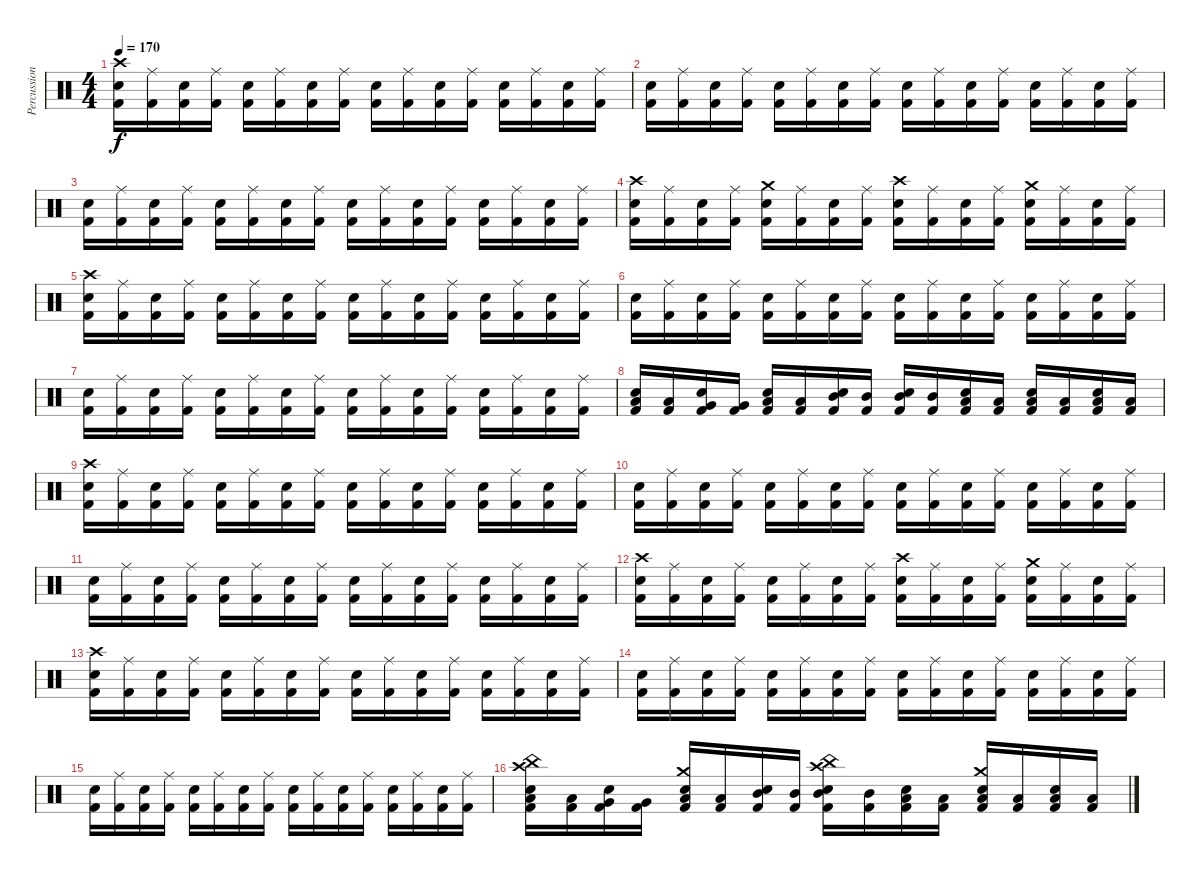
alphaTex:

\track ("Percussions" "Percussion") {instrument percussion}
\staff {score}
\articulation defaults
\ts (4 4)
\tempo 170
\clef neutral
\ks c
("Crash high (hit)" "Snare (hit) 2" "Kick (hit) 2").16{dy f} ("Ride (middle)" "Kick (hit) 2").16 ("Snare (hit) 2" "Kick (hit) 2").16 ("Ride (middle)" "Kick (hit) 2").16 ("Snare (hit) 2" "Kick (hit) 2").16 ("Ride (middle)" "Kick (hit) 2").16 ("Snare (hit) 2" "Kick (hit) 2").16 ("Ride (middle)" "Kick (hit) 2").16 ("Snare (hit) 2" "Kick (hit) 2").16 ("Ride (middle)" "Kick (hit) 2").16 ("Snare (hit) 2" "Kick (hit) 2").16 ("Ride (middle)" "Kick (hit) 2").16 ("Snare (hit) 2" "Kick (hit) 2").16 ("Ride (middle)" "Kick (hit) 2").16 ("Snare (hit) 2" "Kick (hit) 2").16 ("Ride (middle)" "Kick (hit) 2").16 |
("Snare (hit) 2" "Kick (hit) 2").16 ("Ride (middle)" "Kick (hit) 2").16 ("Snare (hit) 2" "Kick (hit) 2").16 ("Ride (middle)" "Kick (hit) 2").16 ("Snare (hit) 2" "Kick (hit) 2").16 ("Ride (middle)" "Kick (hit) 2").16 ("Snare (hit) 2" "Kick (hit) 2").16 ("Ride (middle)" "Kick (hit) 2").16 ("Snare (hit) 2" "Kick (hit) 2").16 ("Ride (middle)" "Kick (hit) 2").16 ("Snare (hit) 2" "Kick (hit) 2").16 ("Ride (middle)" "Kick (hit) 2").16 ("Snare (hit) 2" "Kick (hit) 2").16 ("Ride (middle)" "Kick (hit) 2").16 ("Snare (hit) 2" "Kick (hit) 2").16 ("Ride (middle)" "Kick (hit) 2").16 |
("Snare (hit) 2" "Kick (hit) 2").16 ("Ride (middle)" "Kick (hit) 2").16 ("Snare (hit) 2" "Kick (hit) 2").16 ("Ride (middle)" "Kick (hit) 2").16 ("Snare (hit) 2" "Kick (hit) 2").16 ("Ride (middle)" "Kick (hit) 2").16 ("Snare (hit) 2" "Kick (hit) 2").16 ("Ride (middle)" "Kick (hit) 2").16 ("Snare (hit) 2" "Kick (hit) 2").16 ("Ride (middle)" "Kick (hit) 2").16 ("Snare (hit) 2" "Kick (hit) 2").16 ("Ride (middle)" "Kick (hit) 2").16 ("Snare (hit) 2" "Kick (hit) 2").16 ("Ride (middle)" "Kick (hit) 2").16 ("Snare (hit) 2" "Kick (hit) 2").16 ("Ride (middle)" "Kick (hit) 2").16 |
("Crash high (hit)" "Snare (hit) 2" "Kick (hit) 2").16 ("Ride (middle)" "Kick (hit) 2").16 ("Snare (hit) 2" "Kick (hit) 2").16 ("Ride (middle)" "Kick (hit) 2").16 ("Crash medium (hit)" "Snare (hit) 2" "Kick (hit) 2").16 ("Ride (middle)" "Kick (hit) 2").16 ("Snare (hit) 2" "Kick (hit) 2").16 ("Ride (middle)" "Kick (hit) 2").16 ("Crash high (hit)" "Snare (hit) 2" "Kick (hit) 2").16 ("Ride (middle)" "Kick (hit) 2").16 ("Snare (hit) 2" "Kick (hit) 2").16 ("Ride (middle)" "Kick (hit) 2").16 ("Crash medium (hit)" "Snare (hit) 2" "Kick (hit) 2").16 ("Ride (middle)" "Kick (hit) 2").16 ("Snare (hit) 2" "Kick (hit) 2").16 ("Ride (middle)" "Kick (hit) 2").16 |
("Crash high (hit)" "Snare (hit) 2" "Kick (hit) 2").16 ("Ride (middle)" "Kick (hit) 2").16 ("Snare (hit) 2" "Kick (hit) 2").16 ("Ride (middle)" "Kick (hit) 2").16 ("Snare (hit) 2" "Kick (hit) 2").16 ("Ride (middle)" "Kick (hit) 2").16 ("Snare (hit) 2" "Kick (hit) 2").16 ("Ride (middle)" "Kick (hit) 2").16 ("Snare (hit) 2" "Kick (hit) 2").16 ("Ride (middle)" "Kick (hit) 2").16 ("Snare (hit) 2" "Kick (hit) 2").16 ("Ride (middle)" "Kick (hit) 2").16 ("Snare (hit) 2" "Kick (hit) 2").16 ("Ride (middle)" "Kick (hit) 2").16 ("Snare (hit) 2" "Kick (hit) 2").16 ("Ride (middle)" "Kick (hit) 2").16 |
("Snare (hit) 2" "Kick (hit) 2").16 ("Ride (middle)" "Kick (hit) 2").16 ("Snare (hit) 2" "Kick (hit) 2").16 ("Ride (middle)" "Kick (hit) 2").16 ("Snare (hit) 2" "Kick (hit) 2").16 ("Ride (middle)" "Kick (hit) 2").16 ("Snare (hit) 2" "Kick (hit) 2").16 ("Ride (middle)" "Kick (hit) 2").16 ("Snare (hit) 2" "Kick (hit) 2").16 ("Ride (middle)" "Kick (hit) 2").16 ("Snare (hit) 2" "Kick (hit) 2").16 ("Ride (middle)" "Kick (hit) 2").16 ("Snare (hit) 2" "Kick (hit) 2").16 ("Ride (middle)" "Kick (hit) 2").16 ("Snare (hit) 2" "Kick (hit) 2").16 ("Ride (middle)" "Kick (hit) 2").16 |
("Snare (hit) 2" "Kick (hit) 2").16 ("Ride (middle)" "Kick (hit) 2").16 ("Snare (hit) 2" "Kick (hit) 2").16 ("Ride (middle)" "Kick (hit) 2").16 ("Snare (hit) 2" "Kick (hit) 2").16 ("Ride (middle)" "Kick (hit) 2").16 ("Snare (hit) 2" "Kick (hit) 2").16 ("Ride (middle)" "Kick (hit) 2").16 ("Snare (hit) 2" "Kick (hit) 2").16 ("Ride (middle)" "Kick (hit) 2").16 ("Snare (hit) 2" "Kick (hit) 2").16 ("Ride (middle)" "Kick (hit) 2").16 ("Snare (hit) 2" "Kick (hit) 2").16 ("Ride (middle)" "Kick (hit) 2").16 ("Snare (hit) 2" "Kick (hit) 2").16 ("Ride (middle)" "Kick (hit) 2").16 |
("Low Floor Tom (hit)" "Snare (hit) 2" "Kick (hit) 2").16 ("Low Floor Tom (hit)" "Kick (hit) 2").16 ("Very Low Tom (hit)" "Snare (hit) 2" "Kick (hit) 2").16 ("Very Low Tom (hit)" "Kick (hit) 2").16 ("Low Tom (hit)" "Snare (hit) 2" "Kick (hit) 2").16 ("Low Tom (hit)" "Kick (hit) 2").16 ("Mid Tom (hit)" "Snare (hit) 2" "Kick (hit) 2").16 ("Mid Tom (hit)" "Kick (hit) 2").16 ("Mid Tom (hit)" "Snare (hit) 2" "Kick (hit) 2").16 ("Mid Tom (hit)" "Kick (hit) 2").16 ("Low Tom (hit)" "Snare (hit) 2" "Kick (hit) 2").16 ("Low Tom (hit)" "Kick (hit) 2").16 ("Low Floor Tom (hit)" "Snare (hit) 2" "Kick (hit) 2").16 ("Low Floor Tom (hit)" "Kick (hit) 2").16 ("Low Floor Tom (hit)" "Snare (hit) 2" "Kick (hit) 2").16 ("Low Floor Tom (hit)" "Kick (hit) 2").16 |
("Crash high (hit)" "Snare (hit) 2" "Kick (hit) 2").16 ("Ride (middle)" "Kick (hit) 2").16 ("Snare (hit) 2" "Kick (hit) 2").16 ("Ride (middle)" "Kick (hit) 2").16 ("Snare (hit) 2" "Kick (hit) 2").16 ("Ride (middle)" "Kick (hit) 2").16 ("Snare (hit) 2" "Kick (hit) 2").16 ("Ride (middle)" "Kick (hit) 2").16 ("Snare (hit) 2" "Kick (hit) 2").16 ("Ride (middle)" "Kick (hit) 2").16 ("Snare (hit) 2" "Kick (hit) 2").16 ("Ride (middle)" "Kick (hit) 2").16 ("Snare (hit) 2" "Kick (hit) 2").16 ("Ride (middle)" "Kick (hit) 2").16 ("Snare (hit) 2" "Kick (hit) 2").16 ("Ride (middle)" "Kick (hit) 2").16 |
("Snare (hit) 2" "Kick (hit) 2").16 ("Ride (middle)" "Kick (hit) 2").16 ("Snare (hit) 2" "Kick (hit) 2").16 ("Ride (middle)" "Kick (hit) 2").16 ("Snare (hit) 2" "Kick (hit) 2").16 ("Ride (middle)" "Kick (hit) 2").16 ("Snare (hit) 2" "Kick (hit) 2").16 ("Ride (middle)" "Kick (hit) 2").16 ("Snare (hit) 2" "Kick (hit) 2").16 ("Ride (middle)" "Kick (hit) 2").16 ("Snare (hit) 2" "Kick (hit) 2").16 ("Ride (middle)" "Kick (hit) 2").16 ("Snare (hit) 2" "Kick (hit) 2").16 ("Ride (middle)" "Kick (hit) 2").16 ("Snare (hit) 2" "Kick (hit) 2").16 ("Ride (middle)" "Kick (hit) 2").16 |
("Snare (hit) 2" "Kick (hit) 2").16 ("Ride (middle)" "Kick (hit) 2").16 ("Snare (hit) 2" "Kick (hit) 2").16 ("Ride (middle)" "Kick (hit) 2").16 ("Snare (hit) 2" "Kick (hit) 2").16 ("Ride (middle)" "Kick (hit) 2").16 ("Snare (hit) 2" "Kick (hit) 2").16 ("Ride (middle)" "Kick (hit) 2").16 ("Snare (hit) 2" "Kick (hit) 2").16 ("Ride (middle)" "Kick (hit) 2").16 ("Snare (hit) 2" "Kick (hit) 2").16 ("Ride (middle)" "Kick (hit) 2").16 ("Snare (hit) 2" "Kick (hit) 2").16 ("Ride (middle)" "Kick (hit) 2").16 ("Snare (hit) 2" "Kick (hit) 2").16 ("Ride (middle)" "Kick (hit) 2").16 |
("Crash high (hit)" "Snare (hit) 2" "Kick (hit) 2").16 ("Ride (middle)" "Kick (hit) 2").16 ("Snare (hit) 2" "Kick (hit) 2").16 ("Ride (middle)" "Kick (hit) 2").16 ("Snare (hit) 2" "Kick (hit) 2").16 ("Ride (middle)" "Kick (hit) 2").16 ("Snare (hit) 2" "Kick (hit) 2").16 ("Ride (middle)" "Kick (hit) 2").16 ("Crash high (hit)" "Snare (hit) 2" "Kick (hit) 2").16 ("Ride (middle)" "Kick (hit) 2").16 ("Snare (hit) 2" "Kick (hit) 2").16 ("Ride (middle)" "Kick (hit) 2").16 ("Crash medium (hit)" "Snare (hit) 2" "Kick (hit) 2").16 ("Ride (middle)" "Kick (hit) 2").16 ("Snare (hit) 2" "Kick (hit) 2").16 ("Ride (middle)" "Kick (hit) 2").16 |
("Crash high (hit)" "Snare (hit) 2" "Kick (hit) 2").16 ("Ride (middle)" "Kick (hit) 2").16 ("Snare (hit) 2" "Kick (hit) 2").16 ("Ride (middle)" "Kick (hit) 2").16 ("Snare (hit) 2" "Kick (hit) 2").16 ("Ride (middle)" "Kick (hit) 2").16 ("Snare (hit) 2" "Kick (hit) 2").16 ("Ride (middle)" "Kick (hit) 2").16 ("Snare (hit) 2" "Kick (hit) 2").16 ("Ride (middle)" "Kick (hit) 2").16 ("Snare (hit) 2" "Kick (hit) 2").16 ("Ride (middle)" "Kick (hit) 2").16 ("Snare (hit) 2" "Kick (hit) 2").16 ("Ride (middle)" "Kick (hit) 2").16 ("Snare (hit) 2" "Kick (hit) 2").16 ("Ride (middle)" "Kick (hit) 2").16 |
("Snare (hit) 2" "Kick (hit) 2").16 ("Ride (middle)" "Kick (hit) 2").16 ("Snare (hit) 2" "Kick (hit) 2").16 ("Ride (middle)" "Kick (hit) 2").16 ("Snare (hit) 2" "Kick (hit) 2").16 ("Ride (middle)" "Kick (hit) 2").16 ("Snare (hit) 2" "Kick (hit) 2").16 ("Ride (middle)" "Kick (hit) 2").16 ("Snare (hit) 2" "Kick (hit) 2").16 ("Ride (middle)" "Kick (hit) 2").16 ("Snare (hit) 2" "Kick (hit) 2").16 ("Ride (middle)" "Kick (hit) 2").16 ("Snare (hit) 2" "Kick (hit) 2").16 ("Ride (middle)" "Kick (hit) 2").16 ("Snare (hit) 2" "Kick (hit) 2").16 ("Ride (middle)" "Kick (hit) 2").16 |
("Snare (hit) 2" "Kick (hit) 2").16 ("Ride (middle)" "Kick (hit) 2").16 ("Snare (hit) 2" "Kick (hit) 2").16 ("Ride (middle)" "Kick (hit) 2").16 ("Snare (hit) 2" "Kick (hit) 2").16 ("Ride (middle)" "Kick (hit) 2").16 ("Snare (hit) 2" "Kick (hit) 2").16 ("Ride (middle)" "Kick (hit) 2").16 ("Snare (hit) 2" "Kick (hit) 2").16 ("Ride (middle)" "Kick (hit) 2").16 ("Snare (hit) 2" "Kick (hit) 2").16 ("Ride (middle)" "Kick (hit) 2").16 ("Snare (hit) 2" "Kick (hit) 2").16 ("Ride (middle)" "Kick (hit) 2").16 ("Snare (hit) 2" "Kick (hit) 2").16 ("Ride (middle)" "Kick (hit) 2").16 |
("China (hit)" "Crash high (hit)" "Low Floor Tom (hit)" "Snare (hit) 2" "Kick (hit) 2").16 ("Low Floor Tom (hit)" "Kick (hit) 2").16 ("Very Low Tom (hit)" "Snare (hit) 2" "Kick (hit) 2").16 ("Very Low Tom (hit)" "Kick (hit) 2").16 ("Crash medium (hit)" "Low Tom (hit)" "Snare (hit) 2" "Kick (hit) 2").16 ("Low Tom (hit)" "Kick (hit) 2").16 ("Mid Tom (hit)" "Snare (hit) 2" "Kick (hit) 2").16 ("Mid Tom (hit)" "Kick (hit) 2").16 ("Crash high (hit)" "China (hit)" "Mid Tom (hit)" "Snare (hit) 2" "Kick (hit) 2").16 ("Mid Tom (hit)" "Kick (hit) 2").16 ("Low Tom (hit)" "Snare (hit) 2" "Kick (hit) 2").16 ("Low Tom (hit)" "Kick (hit) 2").16 ("Crash medium (hit)" "Low Floor Tom (hit)" "Snare (hit) 2" "Kick (hit) 2").16 ("Low Floor Tom (hit)" "Kick (hit) 2").16 ("Low Floor Tom (hit)" "Snare (hit) 2" "Kick (hit) 2").16 ("Low Floor Tom (hit)" "Kick (hit) 2").16
